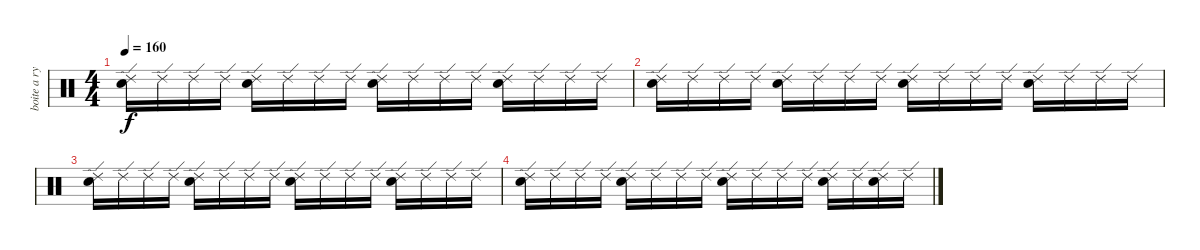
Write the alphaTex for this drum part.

\track ("boite a rythme" "boite a ry") {instrument percussion}
\staff {score}
\articulation defaults
\ts (4 4)
\tempo 160
\clef neutral
\ks c
("Ride (edge) 2" "Electric Snare (hit)").16{dy f} "Ride (edge) 2".16 "Ride (edge) 2".16 "Ride (edge) 2".16 ("Ride (edge) 2" "Electric Snare (hit)").16 "Ride (edge) 2".16 "Ride (edge) 2".16 "Ride (edge) 2".16 ("Ride (edge) 2" "Electric Snare (hit)").16 "Ride (edge) 2".16 "Ride (edge) 2".16 "Ride (edge) 2".16 ("Ride (edge) 2" "Electric Snare (hit)").16 "Ride (edge) 2".16 "Ride (edge) 2".16 "Ride (edge) 2".16 |
("Ride (edge) 2" "Electric Snare (hit)").16 "Ride (edge) 2".16 "Ride (edge) 2".16 "Ride (edge) 2".16 ("Ride (edge) 2" "Electric Snare (hit)").16 "Ride (edge) 2".16 "Ride (edge) 2".16 "Ride (edge) 2".16 ("Ride (edge) 2" "Electric Snare (hit)").16 "Ride (edge) 2".16 "Ride (edge) 2".16 "Ride (edge) 2".16 ("Ride (edge) 2" "Electric Snare (hit)").16 "Ride (edge) 2".16 "Ride (edge) 2".16 "Ride (edge) 2".16 |
("Ride (edge) 2" "Electric Snare (hit)").16 "Ride (edge) 2".16 "Ride (edge) 2".16 "Ride (edge) 2".16 ("Ride (edge) 2" "Electric Snare (hit)").16 "Ride (edge) 2".16 "Ride (edge) 2".16 "Ride (edge) 2".16 ("Ride (edge) 2" "Electric Snare (hit)").16 "Ride (edge) 2".16 "Ride (edge) 2".16 "Ride (edge) 2".16 ("Ride (edge) 2" "Electric Snare (hit)").16 "Ride (edge) 2".16 "Ride (edge) 2".16 "Ride (edge) 2".16 |
("Ride (edge) 2" "Electric Snare (hit)").16 "Ride (edge) 2".16 "Ride (edge) 2".16 "Ride (edge) 2".16 ("Ride (edge) 2" "Electric Snare (hit)").16 "Ride (edge) 2".16 "Ride (edge) 2".16 "Ride (edge) 2".16 ("Ride (edge) 2" "Electric Snare (hit)").16 "Ride (edge) 2".16 "Ride (edge) 2".16 "Ride (edge) 2".16 ("Ride (edge) 2" "Electric Snare (hit)").16 "Ride (edge) 2".16 ("Ride (edge) 2" "Electric Snare (hit)").16 "Ride (edge) 2".16
